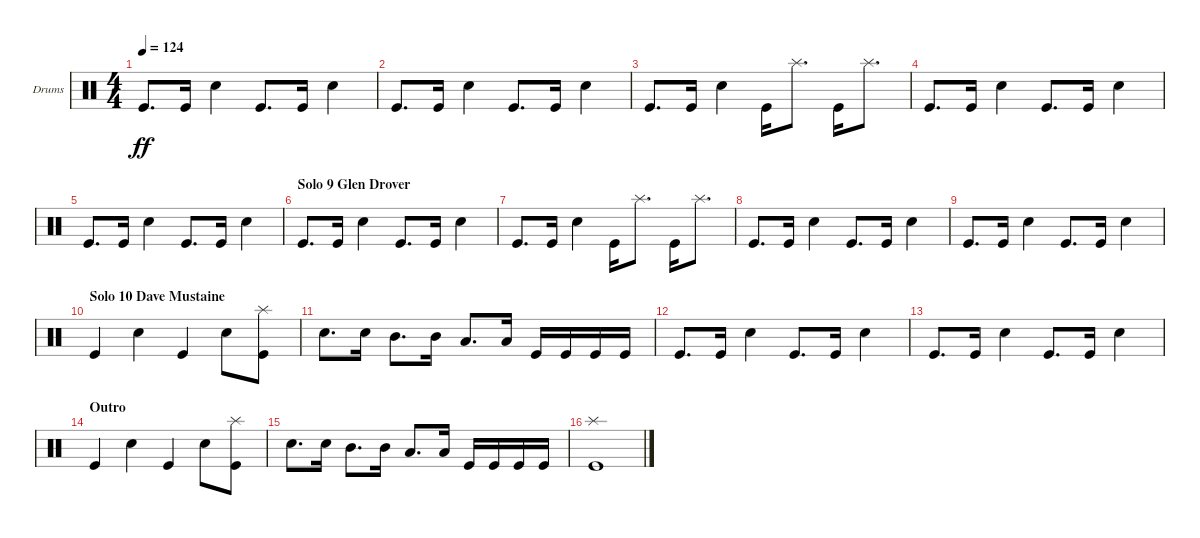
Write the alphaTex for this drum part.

\defaultSystemsLayout 4
\bracketExtendMode groupsimilarinstruments
\firstSystemTrackNameOrientation horizontal
\otherSystemsTrackNameOrientation horizontal
\track ("Nick Menza" "Drums") {instrument percussion}
\staff {score}
\articulation defaults
\ts (4 4)
\tempo 124
\clef neutral
\scale
0.333333
\ks c "Kick (hit)".8{d dy ff} "Kick (hit)".16 "Snare (hit) 2".4 "Kick (hit)".8{d} "Kick (hit)".16 "Snare (hit) 2".4
|
\scale
0.333333 "Kick (hit)".8{d} "Kick (hit)".16 "Snare (hit) 2".4 "Kick (hit)".8{d} "Kick (hit)".16 "Snare (hit) 2".4 |
\scale
0.333333 "Kick (hit)".8{d} "Kick (hit)".16 "Snare (hit) 2".4 "Kick (hit)".16 "Splash (hit)".8{d} "Kick (hit)".16 "Splash (hit)".8{d} |
\scale
0.333333 "Kick (hit)".8{d} "Kick (hit)".16 "Snare (hit) 2".4 "Kick (hit)".8{d} "Kick (hit)".16 "Snare (hit) 2".4 |
\scale
0.333333 "Kick (hit)".8{d} "Kick (hit)".16 "Snare (hit) 2".4 "Kick (hit)".8{d} "Kick (hit)".16 "Snare (hit) 2".4 |
\section ("" "Solo 9 Glen Drover")
\scale
0.333333 "Kick (hit)".8{d} "Kick (hit)".16 "Snare (hit) 2".4 "Kick (hit)".8{d} "Kick (hit)".16 "Snare (hit) 2".4 |
\scale
0.333333 "Kick (hit)".8{d} "Kick (hit)".16 "Snare (hit) 2".4 "Kick (hit)".16 "Splash (hit)".8{d} "Kick (hit)".16 "Splash (hit)".8{d} |
\scale
0.333333 "Kick (hit)".8{d} "Kick (hit)".16 "Snare (hit) 2".4 "Kick (hit)".8{d} "Kick (hit)".16 "Snare (hit) 2".4 |
\scale
0.333333 "Kick (hit)".8{d} "Kick (hit)".16 "Snare (hit) 2".4 "Kick (hit)".8{d} "Kick (hit)".16 "Snare (hit) 2".4 |
\section ("" "Solo 10 Dave Mustaine")
\scale
0.333333 "Kick (hit)".4 "Snare (hit) 2".4 "Kick (hit)".4 "Snare (hit) 2".8 ("Splash (hit)" "Kick (hit)").8 |
\scale
0.333333 "Snare (hit) 2".8{d} "Snare (hit) 2".16 "Mid Tom (hit)".8{d} "Mid Tom (hit)".16 "Low Tom (hit)".8{d} "Low Tom (hit)".16 "Kick (hit)".16 "Kick (hit)".16 "Kick (hit)".16 "Kick (hit)".16 |
\scale
0.333333 "Kick (hit)".8{d} "Kick (hit)".16 "Snare (hit) 2".4 "Kick (hit)".8{d} "Kick (hit)".16 "Snare (hit) 2".4 |
\scale
0.333333 "Kick (hit)".8{d} "Kick (hit)".16 "Snare (hit) 2".4 "Kick (hit)".8{d} "Kick (hit)".16 "Snare (hit) 2".4 |
\section ("" "Outro")
\scale
0.333333 "Kick (hit)".4 "Snare (hit) 2".4 "Kick (hit)".4 "Snare (hit) 2".8 ("Splash (hit)" "Kick (hit)").8 |
\scale
0.333333 "Snare (hit) 2".8{d} "Snare (hit) 2".16 "Mid Tom (hit)".8{d} "Mid Tom (hit)".16 "Low Tom (hit)".8{d} "Low Tom (hit)".16 "Kick (hit)".16 "Kick (hit)".16 "Kick (hit)".16 "Kick (hit)".16 |
("Splash (hit)" "Kick (hit)").1
